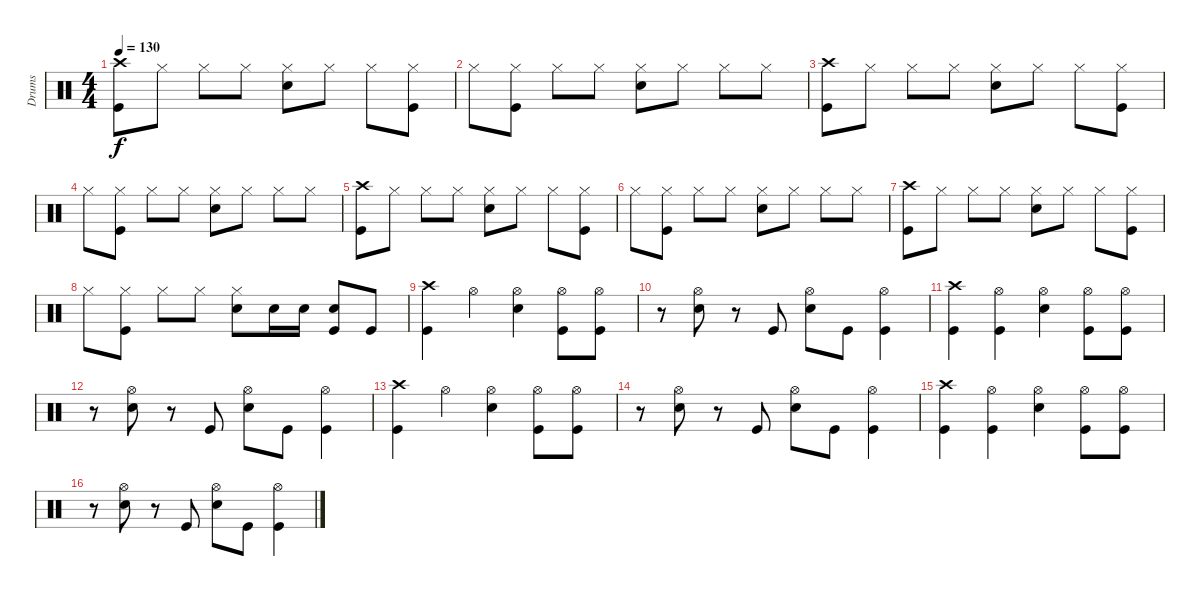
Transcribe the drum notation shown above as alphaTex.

\track ("Drums" "Drums") {instrument percussion}
\staff {score}
\articulation defaults
\ts (4 4)
\tempo 130
\clef neutral
\ks c
("Crash high (hit)" "Kick (hit)").8{dy f} "Hi-Hat (closed)".8 "Hi-Hat (closed)".8 "Hi-Hat (closed)".8 ("Hi-Hat (closed)" "Snare (hit) 2").8 "Hi-Hat (closed)".8 "Hi-Hat (closed)".8 ("Hi-Hat (closed)" "Kick (hit)").8 |
"Hi-Hat (closed)".8 ("Hi-Hat (closed)" "Kick (hit)").8 "Hi-Hat (closed)".8 "Hi-Hat (closed)".8 ("Hi-Hat (closed)" "Snare (hit) 2").8 "Hi-Hat (closed)".8 "Hi-Hat (closed)".8 "Hi-Hat (closed)".8 |
("Crash high (hit)" "Kick (hit)").8 "Hi-Hat (closed)".8 "Hi-Hat (closed)".8 "Hi-Hat (closed)".8 ("Hi-Hat (closed)" "Snare (hit) 2").8 "Hi-Hat (closed)".8 "Hi-Hat (closed)".8 ("Hi-Hat (closed)" "Kick (hit)").8 |
"Hi-Hat (closed)".8 ("Hi-Hat (closed)" "Kick (hit)").8 "Hi-Hat (closed)".8 "Hi-Hat (closed)".8 ("Hi-Hat (closed)" "Snare (hit) 2").8 "Hi-Hat (closed)".8 "Hi-Hat (closed)".8 "Hi-Hat (closed)".8 |
("Crash high (hit)" "Kick (hit)").8 "Hi-Hat (closed)".8 "Hi-Hat (closed)".8 "Hi-Hat (closed)".8 ("Hi-Hat (closed)" "Snare (hit) 2").8 "Hi-Hat (closed)".8 "Hi-Hat (closed)".8 ("Hi-Hat (closed)" "Kick (hit)").8 |
"Hi-Hat (closed)".8 ("Hi-Hat (closed)" "Kick (hit)").8 "Hi-Hat (closed)".8 "Hi-Hat (closed)".8 ("Hi-Hat (closed)" "Snare (hit) 2").8 "Hi-Hat (closed)".8 "Hi-Hat (closed)".8 "Hi-Hat (closed)".8 |
("Crash high (hit)" "Kick (hit)").8 "Hi-Hat (closed)".8 "Hi-Hat (closed)".8 "Hi-Hat (closed)".8 ("Hi-Hat (closed)" "Snare (hit) 2").8 "Hi-Hat (closed)".8 "Hi-Hat (closed)".8 ("Hi-Hat (closed)" "Kick (hit)").8 |
"Hi-Hat (closed)".8 ("Hi-Hat (closed)" "Kick (hit)").8 "Hi-Hat (closed)".8 "Hi-Hat (closed)".8 ("Hi-Hat (closed)" "Snare (hit) 2").8 "Snare (hit) 2".16 "Snare (hit) 2".16 ("Snare (hit) 2" "Kick (hit)").8 "Kick (hit)".8 |
("Crash high (hit)" "Kick (hit)").4 "Hi-Hat (open)".4 ("Hi-Hat (open)" "Snare (hit) 2").4 ("Hi-Hat (open)" "Kick (hit)").8 ("Hi-Hat (open)" "Kick (hit)").8 |
r.8 ("Hi-Hat (open)" "Snare (hit) 2").8 r.8 "Kick (hit)".8 ("Hi-Hat (open)" "Snare (hit) 2").8 "Kick (hit)".8 ("Hi-Hat (open)" "Kick (hit)").4 |
("Crash high (hit)" "Kick (hit)").4 ("Hi-Hat (open)" "Kick (hit)").4 ("Hi-Hat (open)" "Snare (hit) 2").4 ("Hi-Hat (open)" "Kick (hit)").8 ("Hi-Hat (open)" "Kick (hit)").8 |
r.8 ("Hi-Hat (open)" "Snare (hit) 2").8 r.8 "Kick (hit)".8 ("Hi-Hat (open)" "Snare (hit) 2").8 "Kick (hit)".8 ("Hi-Hat (open)" "Kick (hit)").4 |
("Crash high (hit)" "Kick (hit)").4 "Hi-Hat (open)".4 ("Hi-Hat (open)" "Snare (hit) 2").4 ("Hi-Hat (open)" "Kick (hit)").8 ("Hi-Hat (open)" "Kick (hit)").8 |
r.8 ("Hi-Hat (open)" "Snare (hit) 2").8 r.8 "Kick (hit)".8 ("Hi-Hat (open)" "Snare (hit) 2").8 "Kick (hit)".8 ("Hi-Hat (open)" "Kick (hit)").4 |
("Crash high (hit)" "Kick (hit)").4 ("Hi-Hat (open)" "Kick (hit)").4 ("Hi-Hat (open)" "Snare (hit) 2").4 ("Hi-Hat (open)" "Kick (hit)").8 ("Hi-Hat (open)" "Kick (hit)").8 |
r.8 ("Hi-Hat (open)" "Snare (hit) 2").8 r.8 "Kick (hit)".8 ("Hi-Hat (open)" "Snare (hit) 2").8 "Kick (hit)".8 ("Hi-Hat (open)" "Kick (hit)").4
